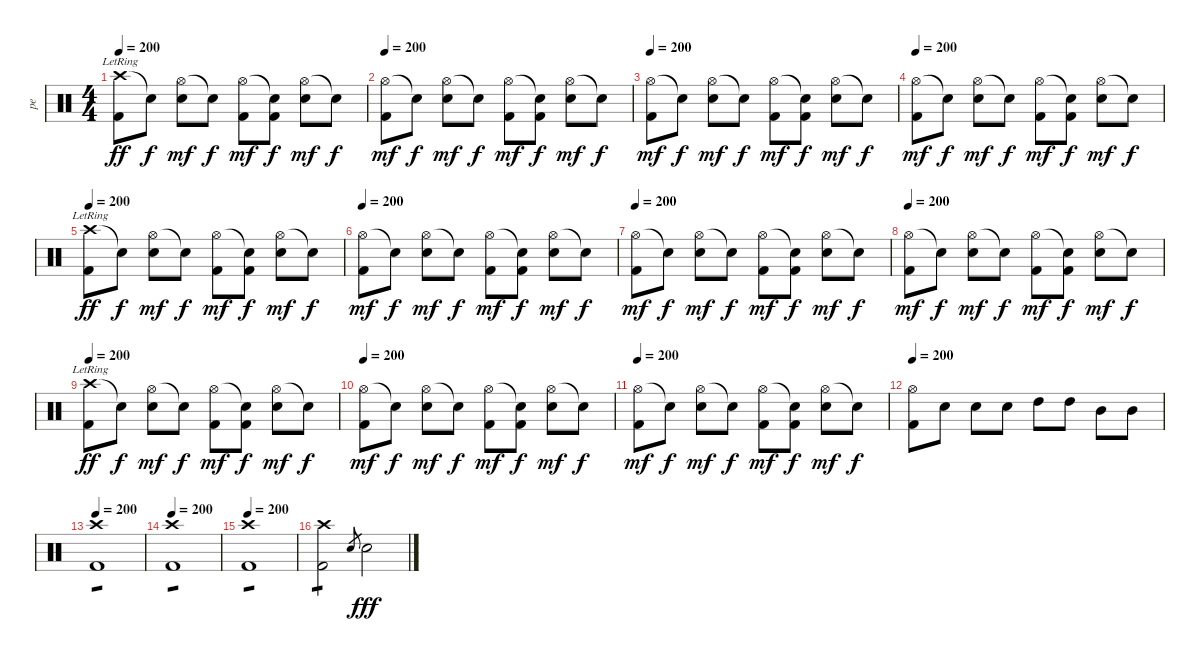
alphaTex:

\track ("pe" "pe") {instrument percussion}
\staff {score}
\articulation defaults
\ts (4 4)
\tempo 200
\clef neutral
\ks c
("Crash high (hit)"{lr} "Kick (hit) 2").8{dy ff} "Snare (hit)"{t}.8{dy f} ("Hi-Hat (open)" "Snare (hit) 2").8{dy mf} "Snare (hit)"{t}.8{dy f} ("Hi-Hat (open)" "Kick (hit) 2").8{dy mf} ("Snare (hit)"{t} "Kick (hit) 2").8{dy f} ("Hi-Hat (open)" "Snare (hit) 2").8{dy mf} "Snare (hit)"{t}.8{dy f} |
\tempo 200
("Hi-Hat (open)" "Kick (hit) 2").8{dy mf} "Snare (hit)"{t}.8{dy f} ("Hi-Hat (open)" "Snare (hit) 2").8{dy mf} "Snare (hit)"{t}.8{dy f} ("Hi-Hat (open)" "Kick (hit) 2").8{dy mf} ("Snare (hit)"{t} "Kick (hit) 2").8{dy f} ("Hi-Hat (open)" "Snare (hit) 2").8{dy mf} "Snare (hit)"{t}.8{dy f} |
\tempo 200
("Hi-Hat (open)" "Kick (hit) 2").8{dy mf} "Snare (hit)"{t}.8{dy f} ("Hi-Hat (open)" "Snare (hit) 2").8{dy mf} "Snare (hit)"{t}.8{dy f} ("Hi-Hat (open)" "Kick (hit) 2").8{dy mf} ("Snare (hit)"{t} "Kick (hit) 2").8{dy f} ("Hi-Hat (open)" "Snare (hit) 2").8{dy mf} "Snare (hit)"{t}.8{dy f} |
\tempo 200
("Hi-Hat (open)" "Kick (hit) 2").8{dy mf} "Snare (hit)"{t}.8{dy f} ("Hi-Hat (open)" "Snare (hit) 2").8{dy mf} "Snare (hit)"{t}.8{dy f} ("Hi-Hat (open)" "Kick (hit) 2").8{dy mf} ("Snare (hit)"{t} "Kick (hit) 2").8{dy f} ("Hi-Hat (open)" "Snare (hit) 2").8{dy mf} "Snare (hit)"{t}.8{dy f} |
\tempo 200
("Crash high (hit)"{lr} "Kick (hit) 2").8{dy ff} "Snare (hit)"{t}.8{dy f} ("Hi-Hat (open)" "Snare (hit) 2").8{dy mf} "Snare (hit)"{t}.8{dy f} ("Hi-Hat (open)" "Kick (hit) 2").8{dy mf} ("Snare (hit)"{t} "Kick (hit) 2").8{dy f} ("Hi-Hat (open)" "Snare (hit) 2").8{dy mf} "Snare (hit)"{t}.8{dy f} |
\tempo 200
("Hi-Hat (open)" "Kick (hit) 2").8{dy mf} "Snare (hit)"{t}.8{dy f} ("Hi-Hat (open)" "Snare (hit) 2").8{dy mf} "Snare (hit)"{t}.8{dy f} ("Hi-Hat (open)" "Kick (hit) 2").8{dy mf} ("Snare (hit)"{t} "Kick (hit) 2").8{dy f} ("Hi-Hat (open)" "Snare (hit) 2").8{dy mf} "Snare (hit)"{t}.8{dy f} |
\tempo 200
("Hi-Hat (open)" "Kick (hit) 2").8{dy mf} "Snare (hit)"{t}.8{dy f} ("Hi-Hat (open)" "Snare (hit) 2").8{dy mf} "Snare (hit)"{t}.8{dy f} ("Hi-Hat (open)" "Kick (hit) 2").8{dy mf} ("Snare (hit)"{t} "Kick (hit) 2").8{dy f} ("Hi-Hat (open)" "Snare (hit) 2").8{dy mf} "Snare (hit)"{t}.8{dy f} |
\tempo 200
("Hi-Hat (open)" "Kick (hit) 2").8{dy mf} "Snare (hit)"{t}.8{dy f} ("Hi-Hat (open)" "Snare (hit) 2").8{dy mf} "Snare (hit)"{t}.8{dy f} ("Hi-Hat (open)" "Kick (hit) 2").8{dy mf} ("Snare (hit)"{t} "Kick (hit) 2").8{dy f} ("Hi-Hat (open)" "Snare (hit) 2").8{dy mf} "Snare (hit)"{t}.8{dy f} |
\tempo 200
("Crash high (hit)"{lr} "Kick (hit) 2").8{dy ff} "Snare (hit)"{t}.8{dy f} ("Hi-Hat (open)" "Snare (hit) 2").8{dy mf} "Snare (hit)"{t}.8{dy f} ("Hi-Hat (open)" "Kick (hit) 2").8{dy mf} ("Snare (hit)"{t} "Kick (hit) 2").8{dy f} ("Hi-Hat (open)" "Snare (hit) 2").8{dy mf} "Snare (hit)"{t}.8{dy f} |
\tempo 200
("Hi-Hat (open)" "Kick (hit) 2").8{dy mf} "Snare (hit)"{t}.8{dy f} ("Hi-Hat (open)" "Snare (hit) 2").8{dy mf} "Snare (hit)"{t}.8{dy f} ("Hi-Hat (open)" "Kick (hit) 2").8{dy mf} ("Snare (hit)"{t} "Kick (hit) 2").8{dy f} ("Hi-Hat (open)" "Snare (hit) 2").8{dy mf} "Snare (hit)"{t}.8{dy f} |
\tempo 200
("Hi-Hat (open)" "Kick (hit) 2").8{dy mf} "Snare (hit)"{t}.8{dy f} ("Hi-Hat (open)" "Snare (hit) 2").8{dy mf} "Snare (hit)"{t}.8{dy f} ("Hi-Hat (open)" "Kick (hit) 2").8{dy mf} ("Snare (hit)"{t} "Kick (hit) 2").8{dy f} ("Hi-Hat (open)" "Snare (hit) 2").8{dy mf} "Snare (hit)"{t}.8{dy f} |
\tempo 200
("Hi-Hat (open)" "Kick (hit) 2").8 "Electric Snare (hit)".8 "Electric Snare (hit)".8 "Electric Snare (hit)".8 "High Tom (hit)".8 "High Tom (hit)".8 "Mid Tom (hit)".8 "Mid Tom (hit)".8 |
\tempo 200
("Crash high (hit)" "Kick (hit) 2").1{tp 1} |
\tempo 200
("Crash high (hit)" "Kick (hit) 2").1{tp 1} |
\tempo 200
("Crash high (hit)" "Kick (hit) 2").1{tp 1} |
("Crash high (hit)" "Kick (hit) 2").2{tp 1} "Snare (hit) 2".8{gr} "Snare (hit) 2".2{dy fff}
